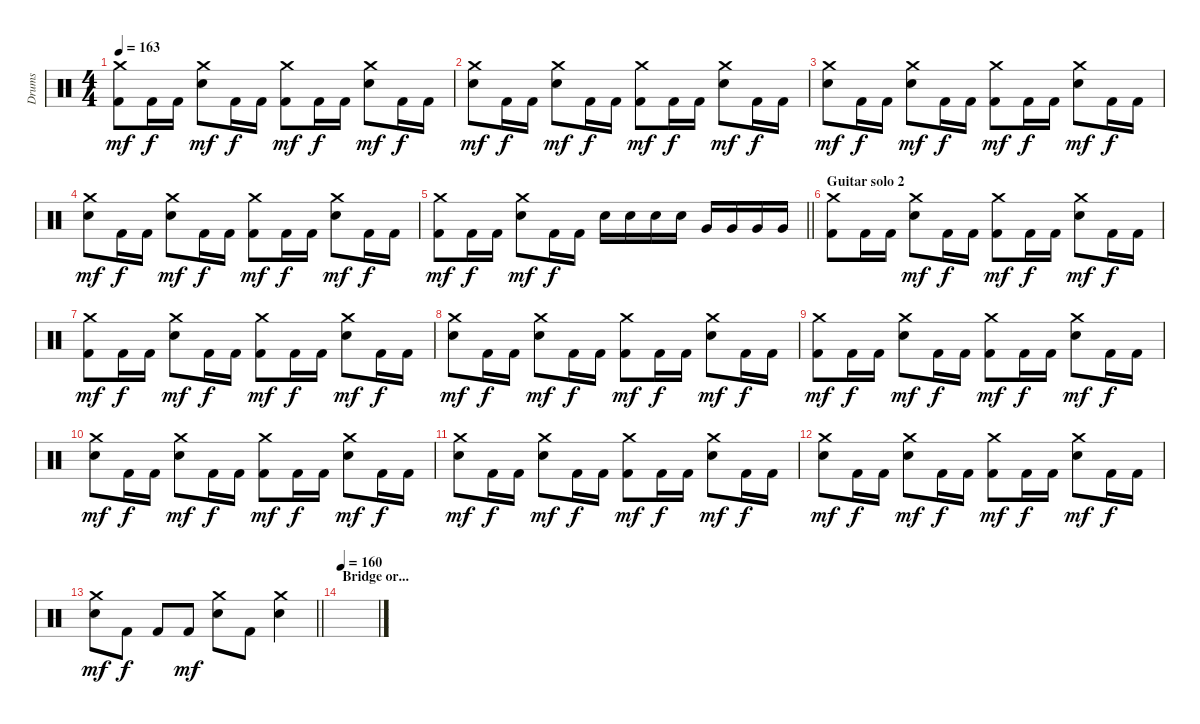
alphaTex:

\track ("Drums" "Drums") {instrument percussion}
\staff {score}
\articulation defaults
\ts (4 4)
\tempo 163
\clef neutral
\ks c
("Crash medium (hit)" "Kick (hit) 2").8{dy mf} "Kick (hit) 2".16{dy f} "Kick (hit) 2".16 ("Crash medium (hit)" "Electric Snare (hit)").8{dy mf} "Kick (hit) 2".16{dy f} "Kick (hit) 2".16 ("Crash medium (hit)" "Kick (hit) 2").8{dy mf} "Kick (hit) 2".16{dy f} "Kick (hit) 2".16 ("Crash medium (hit)" "Electric Snare (hit)").8{dy mf} "Kick (hit) 2".16{dy f} "Kick (hit) 2".16 |
("Crash medium (hit)" "Electric Snare (hit)").8{dy mf} "Kick (hit) 2".16{dy f} "Kick (hit) 2".16 ("Crash medium (hit)" "Electric Snare (hit)").8{dy mf} "Kick (hit) 2".16{dy f} "Kick (hit) 2".16 ("Crash medium (hit)" "Kick (hit) 2").8{dy mf} "Kick (hit) 2".16{dy f} "Kick (hit) 2".16 ("Crash medium (hit)" "Electric Snare (hit)").8{dy mf} "Kick (hit) 2".16{dy f} "Kick (hit) 2".16 |
("Crash medium (hit)" "Electric Snare (hit)").8{dy mf} "Kick (hit) 2".16{dy f} "Kick (hit) 2".16 ("Crash medium (hit)" "Electric Snare (hit)").8{dy mf} "Kick (hit) 2".16{dy f} "Kick (hit) 2".16 ("Crash medium (hit)" "Kick (hit) 2").8{dy mf} "Kick (hit) 2".16{dy f} "Kick (hit) 2".16 ("Crash medium (hit)" "Electric Snare (hit)").8{dy mf} "Kick (hit) 2".16{dy f} "Kick (hit) 2".16 |
("Crash medium (hit)" "Electric Snare (hit)").8{dy mf} "Kick (hit) 2".16{dy f} "Kick (hit) 2".16 ("Crash medium (hit)" "Electric Snare (hit)").8{dy mf} "Kick (hit) 2".16{dy f} "Kick (hit) 2".16 ("Crash medium (hit)" "Kick (hit) 2").8{dy mf} "Kick (hit) 2".16{dy f} "Kick (hit) 2".16 ("Crash medium (hit)" "Electric Snare (hit)").8{dy mf} "Kick (hit) 2".16{dy f} "Kick (hit) 2".16 |
\barLineRight lightlight
("Crash medium (hit)" "Kick (hit) 2").8{dy mf} "Kick (hit) 2".16{dy f} "Kick (hit) 2".16 ("Crash medium (hit)" "Electric Snare (hit)").8{dy mf} "Kick (hit) 2".16{dy f} "Kick (hit) 2".16 "Electric Snare (hit)".16 "Electric Snare (hit)".16 "Electric Snare (hit)".16 "Electric Snare (hit)".16 "Very Low Tom (hit)".16 "Very Low Tom (hit)".16 "Very Low Tom (hit)".16 "Very Low Tom (hit)".16 |
\section ("" "Guitar solo 2")
("Crash medium (hit)" "Kick (hit) 2").8 "Kick (hit) 2".16 "Kick (hit) 2".16 ("Crash medium (hit)" "Electric Snare (hit)").8{dy mf} "Kick (hit) 2".16{dy f} "Kick (hit) 2".16 ("Crash medium (hit)" "Kick (hit) 2").8{dy mf} "Kick (hit) 2".16{dy f} "Kick (hit) 2".16 ("Crash medium (hit)" "Electric Snare (hit)").8{dy mf} "Kick (hit) 2".16{dy f} "Kick (hit) 2".16 |
("Crash medium (hit)" "Kick (hit) 2").8{dy mf} "Kick (hit) 2".16{dy f} "Kick (hit) 2".16 ("Crash medium (hit)" "Electric Snare (hit)").8{dy mf} "Kick (hit) 2".16{dy f} "Kick (hit) 2".16 ("Crash medium (hit)" "Kick (hit) 2").8{dy mf} "Kick (hit) 2".16{dy f} "Kick (hit) 2".16 ("Crash medium (hit)" "Electric Snare (hit)").8{dy mf} "Kick (hit) 2".16{dy f} "Kick (hit) 2".16 |
("Crash medium (hit)" "Electric Snare (hit)").8{dy mf} "Kick (hit) 2".16{dy f} "Kick (hit) 2".16 ("Crash medium (hit)" "Electric Snare (hit)").8{dy mf} "Kick (hit) 2".16{dy f} "Kick (hit) 2".16 ("Crash medium (hit)" "Kick (hit) 2").8{dy mf} "Kick (hit) 2".16{dy f} "Kick (hit) 2".16 ("Crash medium (hit)" "Electric Snare (hit)").8{dy mf} "Kick (hit) 2".16{dy f} "Kick (hit) 2".16 |
("Crash medium (hit)" "Kick (hit) 2").8{dy mf} "Kick (hit) 2".16{dy f} "Kick (hit) 2".16 ("Crash medium (hit)" "Electric Snare (hit)").8{dy mf} "Kick (hit) 2".16{dy f} "Kick (hit) 2".16 ("Crash medium (hit)" "Kick (hit) 2").8{dy mf} "Kick (hit) 2".16{dy f} "Kick (hit) 2".16 ("Crash medium (hit)" "Electric Snare (hit)").8{dy mf} "Kick (hit) 2".16{dy f} "Kick (hit) 2".16 |
("Crash medium (hit)" "Electric Snare (hit)").8{dy mf} "Kick (hit) 2".16{dy f} "Kick (hit) 2".16 ("Crash medium (hit)" "Electric Snare (hit)").8{dy mf} "Kick (hit) 2".16{dy f} "Kick (hit) 2".16 ("Crash medium (hit)" "Kick (hit) 2").8{dy mf} "Kick (hit) 2".16{dy f} "Kick (hit) 2".16 ("Crash medium (hit)" "Electric Snare (hit)").8{dy mf} "Kick (hit) 2".16{dy f} "Kick (hit) 2".16 |
("Crash medium (hit)" "Electric Snare (hit)").8{dy mf} "Kick (hit) 2".16{dy f} "Kick (hit) 2".16 ("Crash medium (hit)" "Electric Snare (hit)").8{dy mf} "Kick (hit) 2".16{dy f} "Kick (hit) 2".16 ("Crash medium (hit)" "Kick (hit) 2").8{dy mf} "Kick (hit) 2".16{dy f} "Kick (hit) 2".16 ("Crash medium (hit)" "Electric Snare (hit)").8{dy mf} "Kick (hit) 2".16{dy f} "Kick (hit) 2".16 |
("Crash medium (hit)" "Electric Snare (hit)").8{dy mf} "Kick (hit) 2".16{dy f} "Kick (hit) 2".16 ("Crash medium (hit)" "Electric Snare (hit)").8{dy mf} "Kick (hit) 2".16{dy f} "Kick (hit) 2".16 ("Crash medium (hit)" "Kick (hit) 2").8{dy mf} "Kick (hit) 2".16{dy f} "Kick (hit) 2".16 ("Crash medium (hit)" "Electric Snare (hit)").8{dy mf} "Kick (hit) 2".16{dy f} "Kick (hit) 2".16 |
\barLineRight lightlight
("Crash medium (hit)" "Electric Snare (hit)").8{dy mf} "Kick (hit) 2".8{dy f} "Kick (hit) 2".8 "Kick (hit) 2".8{dy mf} ("Crash medium (hit)" "Electric Snare (hit)").8 "Kick (hit) 2".8 ("Crash medium (hit)" "Electric Snare (hit)").4 |
\section ("" "Bridge or...")
\tempo 160
